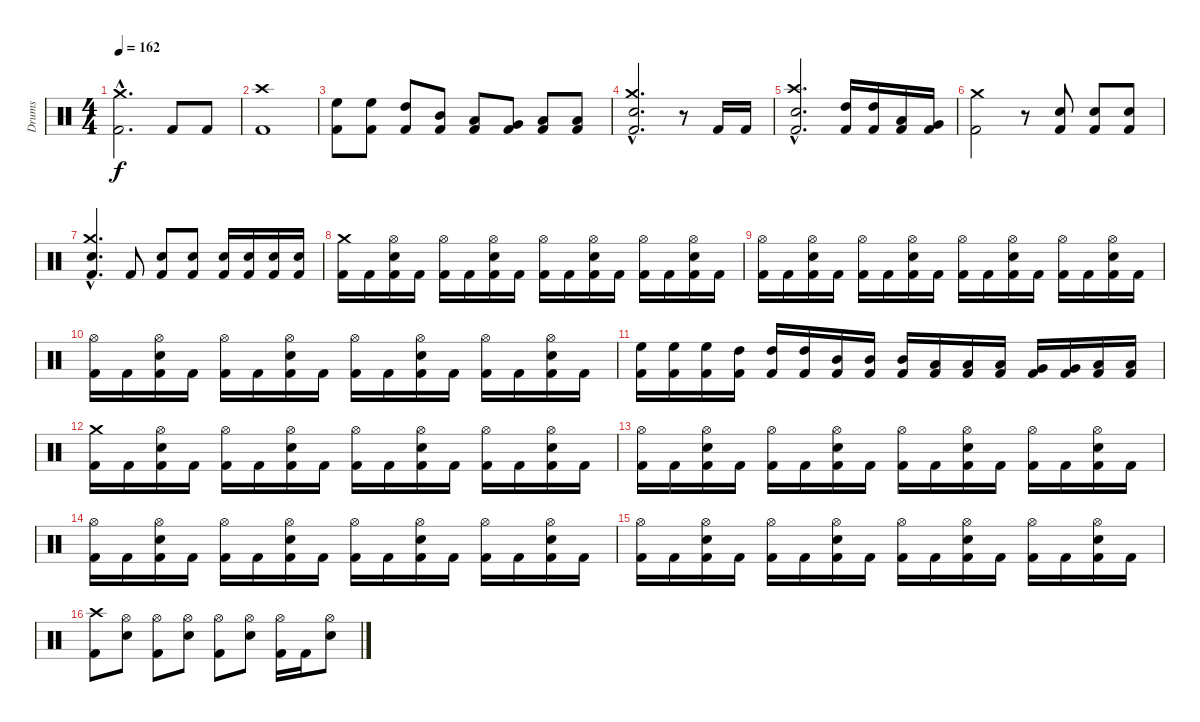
\track ("Drums" "Drums") {instrument percussion}
\staff {score}
\articulation defaults
\ts (4 4)
\tempo 162
\clef neutral
\ks c
("Kick (hit) 2"{hac} "Crash medium (hit)"{hac}).2{d dy f} "Kick (hit) 2".8 "Kick (hit) 2".8 |
("Kick (hit) 2" "Crash high (hit)").1 |
("Kick (hit) 2" "High Floor Tom (hit)").8 ("Kick (hit) 2" "High Floor Tom (hit)").8 ("Kick (hit) 2" "High Tom (hit)").8 ("Kick (hit) 2" "Mid Tom (hit)").8 ("Kick (hit) 2" "Low Tom (hit)").8 ("Kick (hit) 2" "Very Low Tom (hit)").8 ("Kick (hit) 2" "Low Floor Tom (hit)").8 ("Kick (hit) 2" "Low Floor Tom (hit)").8 |
("Kick (hit) 2"{hac} "Snare (hit) 2"{hac} "Crash medium (hit)"{hac}).2{d} r.8 "Kick (hit) 2".16 "Kick (hit) 2".16 |
("Kick (hit) 2"{hac} "Snare (hit) 2"{hac} "Crash high (hit)"{hac}).2{d} ("Kick (hit) 2" "High Tom (hit)").16 ("Kick (hit) 2" "High Tom (hit)").16 ("Kick (hit) 2" "Low Tom (hit)").16 ("Kick (hit) 2" "Very Low Tom (hit)").16 |
("Kick (hit) 2" "Crash medium (hit)").2 r.8 ("Kick (hit) 2" "Snare (hit) 2").8 ("Kick (hit) 2" "Snare (hit) 2").8 ("Kick (hit) 2" "Snare (hit) 2").8 |
("Kick (hit) 2"{hac} "Snare (hit) 2"{hac} "Crash medium (hit)"{hac}).4{d} "Kick (hit) 2".8 ("Kick (hit) 2" "Snare (hit) 2").8 ("Kick (hit) 2" "Snare (hit) 2").8 ("Kick (hit) 2" "Snare (hit) 2").16 ("Kick (hit) 2" "Snare (hit) 2").16 ("Kick (hit) 2" "Snare (hit) 2").16 ("Kick (hit) 2" "Snare (hit) 2").16 |
\section ("" "")
("Kick (hit) 2" "Crash medium (hit)").16 "Kick (hit) 2".16 ("Kick (hit) 2" "Snare (hit) 2" "Hi-Hat (open)").16 "Kick (hit) 2".16 ("Kick (hit) 2" "Hi-Hat (open)").16 "Kick (hit) 2".16 ("Kick (hit) 2" "Snare (hit) 2" "Hi-Hat (open)").16 "Kick (hit) 2".16 ("Kick (hit) 2" "Hi-Hat (open)").16 "Kick (hit) 2".16 ("Kick (hit) 2" "Snare (hit) 2" "Hi-Hat (open)").16 "Kick (hit) 2".16 ("Kick (hit) 2" "Hi-Hat (open)").16 "Kick (hit) 2".16 ("Kick (hit) 2" "Snare (hit) 2" "Hi-Hat (open)").16 "Kick (hit) 2".16 |
("Kick (hit) 2" "Hi-Hat (open)").16 "Kick (hit) 2".16 ("Kick (hit) 2" "Snare (hit) 2" "Hi-Hat (open)").16 "Kick (hit) 2".16 ("Kick (hit) 2" "Hi-Hat (open)").16 "Kick (hit) 2".16 ("Kick (hit) 2" "Snare (hit) 2" "Hi-Hat (open)").16 "Kick (hit) 2".16 ("Kick (hit) 2" "Hi-Hat (open)").16 "Kick (hit) 2".16 ("Kick (hit) 2" "Snare (hit) 2" "Hi-Hat (open)").16 "Kick (hit) 2".16 ("Kick (hit) 2" "Hi-Hat (open)").16 "Kick (hit) 2".16 ("Kick (hit) 2" "Snare (hit) 2" "Hi-Hat (open)").16 "Kick (hit) 2".16 |
("Kick (hit) 2" "Hi-Hat (open)").16 "Kick (hit) 2".16 ("Kick (hit) 2" "Snare (hit) 2" "Hi-Hat (open)").16 "Kick (hit) 2".16 ("Kick (hit) 2" "Hi-Hat (open)").16 "Kick (hit) 2".16 ("Kick (hit) 2" "Snare (hit) 2" "Hi-Hat (open)").16 "Kick (hit) 2".16 ("Kick (hit) 2" "Hi-Hat (open)").16 "Kick (hit) 2".16 ("Kick (hit) 2" "Snare (hit) 2" "Hi-Hat (open)").16 "Kick (hit) 2".16 ("Kick (hit) 2" "Hi-Hat (open)").16 "Kick (hit) 2".16 ("Kick (hit) 2" "Snare (hit) 2" "Hi-Hat (open)").16 "Kick (hit) 2".16 |
("Kick (hit) 2" "High Floor Tom (hit)").16 ("Kick (hit) 2" "High Floor Tom (hit)").16 ("Kick (hit) 2" "High Floor Tom (hit)").16 ("Kick (hit) 2" "High Tom (hit)").16 ("Kick (hit) 2" "High Tom (hit)").16 ("Kick (hit) 2" "High Tom (hit)").16 ("Kick (hit) 2" "Mid Tom (hit)").16 ("Kick (hit) 2" "Mid Tom (hit)").16 ("Kick (hit) 2" "Mid Tom (hit)").16 ("Kick (hit) 2" "Low Tom (hit)").16 ("Kick (hit) 2" "Low Tom (hit)").16 ("Kick (hit) 2" "Low Tom (hit)").16 ("Kick (hit) 2" "Very Low Tom (hit)").16 ("Kick (hit) 2" "Very Low Tom (hit)").16 ("Kick (hit) 2" "Low Floor Tom (hit)").16 ("Kick (hit) 2" "Low Floor Tom (hit)").16 |
("Kick (hit) 2" "Crash medium (hit)").16 "Kick (hit) 2".16 ("Kick (hit) 2" "Snare (hit) 2" "Hi-Hat (open)").16 "Kick (hit) 2".16 ("Kick (hit) 2" "Hi-Hat (open)").16 "Kick (hit) 2".16 ("Kick (hit) 2" "Snare (hit) 2" "Hi-Hat (open)").16 "Kick (hit) 2".16 ("Kick (hit) 2" "Hi-Hat (open)").16 "Kick (hit) 2".16 ("Kick (hit) 2" "Snare (hit) 2" "Hi-Hat (open)").16 "Kick (hit) 2".16 ("Kick (hit) 2" "Hi-Hat (open)").16 "Kick (hit) 2".16 ("Kick (hit) 2" "Snare (hit) 2" "Hi-Hat (open)").16 "Kick (hit) 2".16 |
("Kick (hit) 2" "Hi-Hat (open)").16 "Kick (hit) 2".16 ("Kick (hit) 2" "Snare (hit) 2" "Hi-Hat (open)").16 "Kick (hit) 2".16 ("Kick (hit) 2" "Hi-Hat (open)").16 "Kick (hit) 2".16 ("Kick (hit) 2" "Snare (hit) 2" "Hi-Hat (open)").16 "Kick (hit) 2".16 ("Kick (hit) 2" "Hi-Hat (open)").16 "Kick (hit) 2".16 ("Kick (hit) 2" "Snare (hit) 2" "Hi-Hat (open)").16 "Kick (hit) 2".16 ("Kick (hit) 2" "Hi-Hat (open)").16 "Kick (hit) 2".16 ("Kick (hit) 2" "Snare (hit) 2" "Hi-Hat (open)").16 "Kick (hit) 2".16 |
("Kick (hit) 2" "Hi-Hat (open)").16 "Kick (hit) 2".16 ("Kick (hit) 2" "Snare (hit) 2" "Hi-Hat (open)").16 "Kick (hit) 2".16 ("Kick (hit) 2" "Hi-Hat (open)").16 "Kick (hit) 2".16 ("Kick (hit) 2" "Snare (hit) 2" "Hi-Hat (open)").16 "Kick (hit) 2".16 ("Kick (hit) 2" "Hi-Hat (open)").16 "Kick (hit) 2".16 ("Kick (hit) 2" "Snare (hit) 2" "Hi-Hat (open)").16 "Kick (hit) 2".16 ("Kick (hit) 2" "Hi-Hat (open)").16 "Kick (hit) 2".16 ("Kick (hit) 2" "Snare (hit) 2" "Hi-Hat (open)").16 "Kick (hit) 2".16 |
("Kick (hit) 2" "Hi-Hat (open)").16 "Kick (hit) 2".16 ("Kick (hit) 2" "Snare (hit) 2" "Hi-Hat (open)").16 "Kick (hit) 2".16 ("Kick (hit) 2" "Hi-Hat (open)").16 "Kick (hit) 2".16 ("Kick (hit) 2" "Snare (hit) 2" "Hi-Hat (open)").16 "Kick (hit) 2".16 ("Kick (hit) 2" "Hi-Hat (open)").16 "Kick (hit) 2".16 ("Kick (hit) 2" "Snare (hit) 2" "Hi-Hat (open)").16 "Kick (hit) 2".16 ("Kick (hit) 2" "Hi-Hat (open)").16 "Kick (hit) 2".16 ("Kick (hit) 2" "Snare (hit) 2" "Hi-Hat (open)").16 "Kick (hit) 2".16 |
\section ("" "")
("Kick (hit) 2" "Crash high (hit)").8 ("Snare (hit) 2" "Hi-Hat (open)").8 ("Kick (hit) 2" "Hi-Hat (open)").8 ("Snare (hit) 2" "Hi-Hat (open)").8 ("Kick (hit) 2" "Hi-Hat (open)").8 ("Snare (hit) 2" "Hi-Hat (open)").8 ("Kick (hit) 2" "Hi-Hat (open)").16 "Kick (hit) 2".16 ("Snare (hit) 2" "Hi-Hat (open)").8
